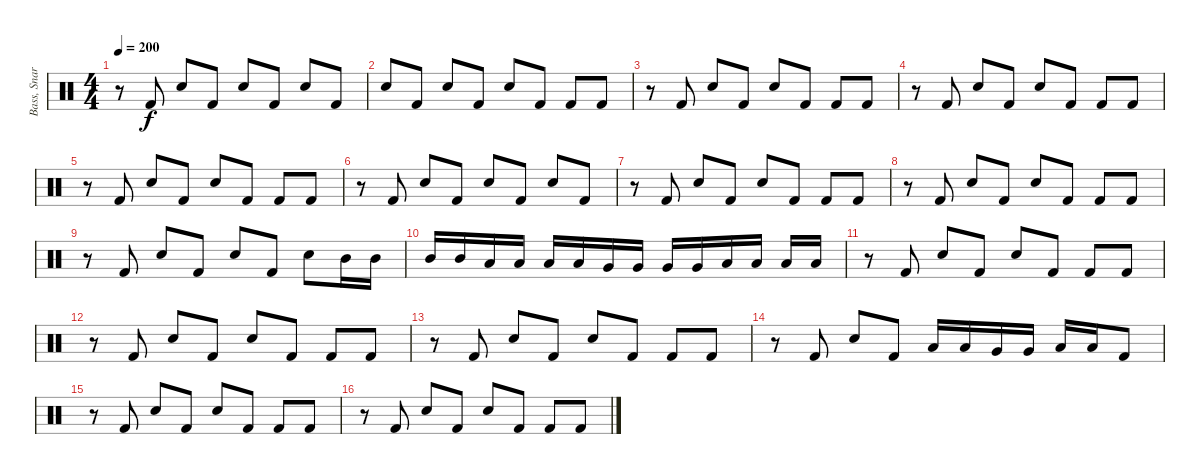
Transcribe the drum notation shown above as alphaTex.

\track ("Bass, Snare & Toms" "Bass, Snar") {instrument percussion}
\staff {score}
\articulation defaults
\ts (4 4)
\tempo 200
\clef neutral
\ks c
r.8{dy f} "Kick (hit) 2".8 "Electric Snare (hit)".8 "Kick (hit) 2".8 "Electric Snare (hit)".8 "Kick (hit) 2".8 "Electric Snare (hit)".8 "Kick (hit) 2".8 |
"Electric Snare (hit)".8 "Kick (hit) 2".8 "Electric Snare (hit)".8 "Kick (hit) 2".8 "Electric Snare (hit)".8 "Kick (hit) 2".8 "Kick (hit) 2".8 "Kick (hit) 2".8 |
r.8 "Kick (hit) 2".8 "Electric Snare (hit)".8 "Kick (hit) 2".8 "Electric Snare (hit)".8 "Kick (hit) 2".8 "Kick (hit) 2".8 "Kick (hit) 2".8 |
r.8 "Kick (hit) 2".8 "Electric Snare (hit)".8 "Kick (hit) 2".8 "Electric Snare (hit)".8 "Kick (hit) 2".8 "Kick (hit) 2".8 "Kick (hit) 2".8 |
r.8 "Kick (hit) 2".8 "Electric Snare (hit)".8 "Kick (hit) 2".8 "Electric Snare (hit)".8 "Kick (hit) 2".8 "Kick (hit) 2".8 "Kick (hit) 2".8 |
r.8 "Kick (hit) 2".8 "Electric Snare (hit)".8 "Kick (hit) 2".8 "Electric Snare (hit)".8 "Kick (hit) 2".8 "Electric Snare (hit)".8 "Kick (hit) 2".8 |
r.8 "Kick (hit) 2".8 "Electric Snare (hit)".8 "Kick (hit) 2".8 "Electric Snare (hit)".8 "Kick (hit) 2".8 "Kick (hit) 2".8 "Kick (hit) 2".8 |
r.8 "Kick (hit) 2".8 "Electric Snare (hit)".8 "Kick (hit) 2".8 "Electric Snare (hit)".8 "Kick (hit) 2".8 "Kick (hit) 2".8 "Kick (hit) 2".8 |
r.8 "Kick (hit) 2".8 "Electric Snare (hit)".8 "Kick (hit) 2".8 "Electric Snare (hit)".8 "Kick (hit) 2".8 "Electric Snare (hit)".8 "Mid Tom (hit)".16 "Mid Tom (hit)".16 |
"Mid Tom (hit)".16 "Mid Tom (hit)".16 "Low Tom (hit)".16 "Low Tom (hit)".16 "Low Tom (hit)".16 "Low Tom (hit)".16 "Very Low Tom (hit)".16 "Very Low Tom (hit)".16 "Very Low Tom (hit)".16 "Very Low Tom (hit)".16 "Low Floor Tom (hit)".16 "Low Floor Tom (hit)".16 "Low Floor Tom (hit)".16 "Low Floor Tom (hit)".16 |
r.8 "Kick (hit) 2".8 "Electric Snare (hit)".8 "Kick (hit) 2".8 "Electric Snare (hit)".8 "Kick (hit) 2".8 "Kick (hit) 2".8 "Kick (hit) 2".8 |
r.8 "Kick (hit) 2".8 "Electric Snare (hit)".8 "Kick (hit) 2".8 "Electric Snare (hit)".8 "Kick (hit) 2".8 "Kick (hit) 2".8 "Kick (hit) 2".8 |
r.8 "Kick (hit) 2".8 "Electric Snare (hit)".8 "Kick (hit) 2".8 "Electric Snare (hit)".8 "Kick (hit) 2".8 "Kick (hit) 2".8 "Kick (hit) 2".8 |
r.8 "Kick (hit) 2".8 "Electric Snare (hit)".8 "Kick (hit) 2".8 "Low Tom (hit)".16 "Low Tom (hit)".16 "Very Low Tom (hit)".16 "Very Low Tom (hit)".16 "Low Floor Tom (hit)".16 "Low Floor Tom (hit)".16 "Kick (hit) 2".8 |
r.8 "Kick (hit) 2".8 "Electric Snare (hit)".8 "Kick (hit) 2".8 "Electric Snare (hit)".8 "Kick (hit) 2".8 "Kick (hit) 2".8 "Kick (hit) 2".8 |
r.8 "Kick (hit) 2".8 "Electric Snare (hit)".8 "Kick (hit) 2".8 "Electric Snare (hit)".8 "Kick (hit) 2".8 "Kick (hit) 2".8 "Kick (hit) 2".8
